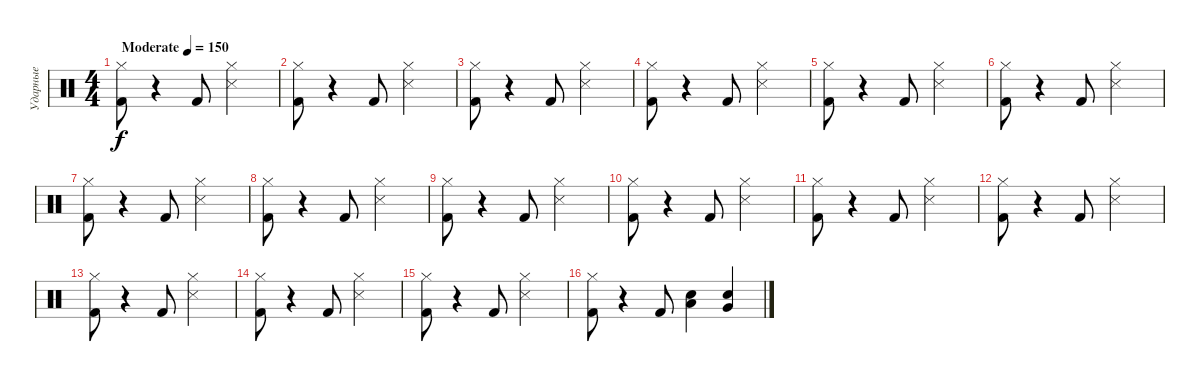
\track ("Ударные" "Ударные") {instrument percussion}
\staff {score}
\articulation defaults
\ts (4 4)
\tempo (150 "Moderate")
\clef neutral
\ks c
("Hi-Hat (closed)" "Kick (hit) 2").8{dy f} r.4 "Kick (hit) 2".8 ("Hi-Hat (closed)" "Snare (side stick) 3").2 |
("Hi-Hat (closed)" "Kick (hit) 2").8 r.4 "Kick (hit) 2".8 ("Hi-Hat (closed)" "Snare (side stick) 3").2 |
("Hi-Hat (closed)" "Kick (hit) 2").8 r.4 "Kick (hit) 2".8 ("Hi-Hat (closed)" "Snare (side stick) 3").2 |
("Hi-Hat (closed)" "Kick (hit) 2").8 r.4 "Kick (hit) 2".8 ("Hi-Hat (closed)" "Snare (side stick) 3").2 |
("Hi-Hat (closed)" "Kick (hit) 2").8 r.4 "Kick (hit) 2".8 ("Hi-Hat (closed)" "Snare (side stick) 3").2 |
("Hi-Hat (closed)" "Kick (hit) 2").8 r.4 "Kick (hit) 2".8 ("Hi-Hat (closed)" "Snare (side stick) 3").2 |
("Hi-Hat (closed)" "Kick (hit) 2").8 r.4 "Kick (hit) 2".8 ("Hi-Hat (closed)" "Snare (side stick) 3").2 |
("Hi-Hat (closed)" "Kick (hit) 2").8 r.4 "Kick (hit) 2".8 ("Hi-Hat (closed)" "Snare (side stick) 3").2 |
("Hi-Hat (closed)" "Kick (hit) 2").8 r.4 "Kick (hit) 2".8 ("Hi-Hat (closed)" "Snare (side stick) 3").2 |
("Hi-Hat (closed)" "Kick (hit) 2").8 r.4 "Kick (hit) 2".8 ("Hi-Hat (closed)" "Snare (side stick) 3").2 |
("Hi-Hat (closed)" "Kick (hit) 2").8 r.4 "Kick (hit) 2".8 ("Hi-Hat (closed)" "Snare (side stick) 3").2 |
("Hi-Hat (closed)" "Kick (hit) 2").8 r.4 "Kick (hit) 2".8 ("Hi-Hat (closed)" "Snare (side stick) 3").2 |
("Hi-Hat (closed)" "Kick (hit) 2").8 r.4 "Kick (hit) 2".8 ("Hi-Hat (closed)" "Snare (side stick) 3").2 |
("Hi-Hat (closed)" "Kick (hit) 2").8 r.4 "Kick (hit) 2".8 ("Hi-Hat (closed)" "Snare (side stick) 3").2 |
("Hi-Hat (closed)" "Kick (hit) 2").8 r.4 "Kick (hit) 2".8 ("Hi-Hat (closed)" "Snare (side stick) 3").2 |
("Hi-Hat (closed)" "Kick (hit) 2").8 r.4 "Kick (hit) 2".8 ("Electric Snare (hit)" "Low Tom (hit)").4 ("Electric Snare (hit)" "Very Low Tom (hit)").4
